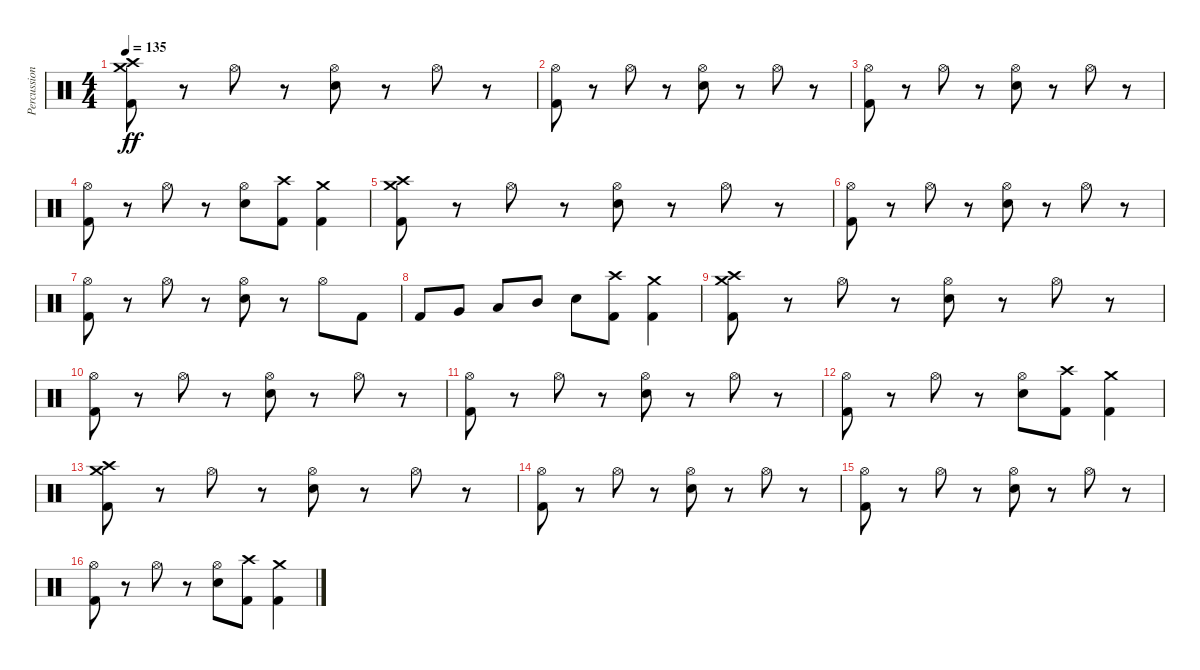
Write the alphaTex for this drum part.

\track ("Percussion" "Percussion") {instrument percussion}
\staff {score}
\articulation defaults
\ts (4 4)
\tempo 135
\clef neutral
\ks c
("Kick (hit) 2" "Crash medium (hit)" "Crash high (hit)").8{dy ff} r.8 "Hi-Hat (open)".8 r.8 ("Electric Snare (hit)" "Hi-Hat (open)").8 r.8 "Hi-Hat (open)".8 r.8 |
("Kick (hit) 2" "Hi-Hat (open)").8 r.8 "Hi-Hat (open)".8 r.8 ("Electric Snare (hit)" "Hi-Hat (open)").8 r.8 "Hi-Hat (open)".8 r.8 |
("Kick (hit) 2" "Hi-Hat (open)").8 r.8 "Hi-Hat (open)".8 r.8 ("Electric Snare (hit)" "Hi-Hat (open)").8 r.8 "Hi-Hat (open)".8 r.8 |
("Kick (hit) 2" "Hi-Hat (open)").8 r.8 "Hi-Hat (open)".8 r.8 ("Electric Snare (hit)" "Hi-Hat (open)").8 ("Kick (hit) 2" "Crash high (hit)").8 ("Kick (hit) 2" "Crash medium (hit)").4 |
("Kick (hit) 2" "Crash medium (hit)" "Crash high (hit)").8 r.8 "Hi-Hat (open)".8 r.8 ("Electric Snare (hit)" "Hi-Hat (open)").8 r.8 "Hi-Hat (open)".8 r.8 |
("Kick (hit) 2" "Hi-Hat (open)").8 r.8 "Hi-Hat (open)".8 r.8 ("Electric Snare (hit)" "Hi-Hat (open)").8 r.8 "Hi-Hat (open)".8 r.8 |
("Kick (hit) 2" "Hi-Hat (open)").8 r.8 "Hi-Hat (open)".8 r.8 ("Electric Snare (hit)" "Hi-Hat (open)").8 r.8 "Hi-Hat (open)".8 "Kick (hit) 2".8 |
"Kick (hit) 2".8 "Very Low Tom (hit)".8 "Low Tom (hit)".8 "Mid Tom (hit)".8 "Electric Snare (hit)".8 ("Kick (hit) 2" "Crash high (hit)").8 ("Kick (hit) 2" "Crash medium (hit)").4 |
("Kick (hit) 2" "Crash medium (hit)" "Crash high (hit)").8 r.8 "Hi-Hat (open)".8 r.8 ("Electric Snare (hit)" "Hi-Hat (open)").8 r.8 "Hi-Hat (open)".8 r.8 |
("Kick (hit) 2" "Hi-Hat (open)").8 r.8 "Hi-Hat (open)".8 r.8 ("Electric Snare (hit)" "Hi-Hat (open)").8 r.8 "Hi-Hat (open)".8 r.8 |
("Kick (hit) 2" "Hi-Hat (open)").8 r.8 "Hi-Hat (open)".8 r.8 ("Electric Snare (hit)" "Hi-Hat (open)").8 r.8 "Hi-Hat (open)".8 r.8 |
("Kick (hit) 2" "Hi-Hat (open)").8 r.8 "Hi-Hat (open)".8 r.8 ("Electric Snare (hit)" "Hi-Hat (open)").8 ("Kick (hit) 2" "Crash high (hit)").8 ("Kick (hit) 2" "Crash medium (hit)").4 |
("Kick (hit) 2" "Crash medium (hit)" "Crash high (hit)").8 r.8 "Hi-Hat (open)".8 r.8 ("Electric Snare (hit)" "Hi-Hat (open)").8 r.8 "Hi-Hat (open)".8 r.8 |
("Kick (hit) 2" "Hi-Hat (open)").8 r.8 "Hi-Hat (open)".8 r.8 ("Electric Snare (hit)" "Hi-Hat (open)").8 r.8 "Hi-Hat (open)".8 r.8 |
("Kick (hit) 2" "Hi-Hat (open)").8 r.8 "Hi-Hat (open)".8 r.8 ("Electric Snare (hit)" "Hi-Hat (open)").8 r.8 "Hi-Hat (open)".8 r.8 |
("Kick (hit) 2" "Hi-Hat (open)").8 r.8 "Hi-Hat (open)".8 r.8 ("Electric Snare (hit)" "Hi-Hat (open)").8 ("Kick (hit) 2" "Crash high (hit)").8 ("Kick (hit) 2" "Crash medium (hit)").4
